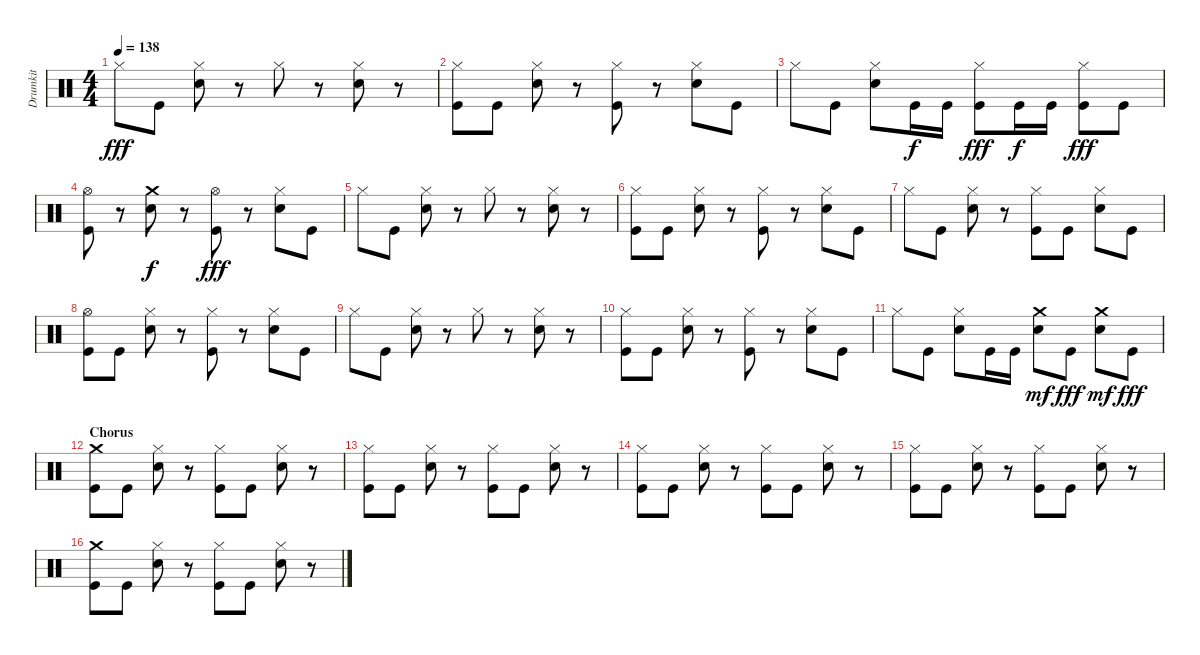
\track ("Drumkit" "Drumkit") {instrument percussion}
\staff {score}
\articulation defaults
\ts (4 4)
\tempo 138
\clef neutral
\ks c "Hi-Hat (closed)".8{dy fff} "Kick (hit)".8
("Hi-Hat (closed)" "Snare (hit) 2").8 r.8 "Hi-Hat (closed)".8 r.8 ("Hi-Hat (closed)" "Snare (hit) 2").8 r.8 |
("Hi-Hat (closed)" "Kick (hit)").8 "Kick (hit)".8 ("Hi-Hat (closed)" "Snare (hit) 2").8 r.8 ("Hi-Hat (closed)" "Kick (hit)").8 r.8 ("Hi-Hat (closed)" "Snare (hit) 2").8 "Kick (hit)".8 |
"Hi-Hat (closed)".8 "Kick (hit)".8 ("Hi-Hat (closed)" "Snare (hit) 2").8 "Kick (hit)".16{dy f} "Kick (hit)".16 ("Hi-Hat (closed)" "Kick (hit)").8{dy fff} "Kick (hit)".16{dy f} "Kick (hit)".16 ("Hi-Hat (closed)" "Kick (hit)").8{dy fff} "Kick (hit)".8 |
("Hi-Hat (open)" "Kick (hit)").8 r.8 ("Crash medium (hit)" "Snare (hit) 2").8{dy f} r.8 ("Hi-Hat (open)" "Kick (hit)").8{dy fff} r.8 ("Hi-Hat (closed)" "Snare (hit) 2").8 "Kick (hit)".8 |
"Hi-Hat (closed)".8 "Kick (hit)".8 ("Hi-Hat (closed)" "Snare (hit) 2").8 r.8 "Hi-Hat (closed)".8 r.8 ("Hi-Hat (closed)" "Snare (hit) 2").8 r.8 |
("Hi-Hat (closed)" "Kick (hit)").8 "Kick (hit)".8 ("Hi-Hat (closed)" "Snare (hit) 2").8 r.8 ("Hi-Hat (closed)" "Kick (hit)").8 r.8 ("Hi-Hat (closed)" "Snare (hit) 2").8 "Kick (hit)".8 |
"Hi-Hat (closed)".8 "Kick (hit)".8 ("Hi-Hat (closed)" "Snare (hit) 2").8 r.8 ("Hi-Hat (closed)" "Kick (hit)").8 "Kick (hit)".8 ("Hi-Hat (closed)" "Snare (hit) 2").8 "Kick (hit)".8 |
("Hi-Hat (open)" "Kick (hit)").8 "Kick (hit)".8 ("Hi-Hat (closed)" "Snare (hit) 2").8 r.8 ("Hi-Hat (closed)" "Kick (hit)").8 r.8 ("Hi-Hat (closed)" "Snare (hit) 2").8 "Kick (hit)".8 |
"Hi-Hat (closed)".8 "Kick (hit)".8 ("Hi-Hat (closed)" "Snare (hit) 2").8 r.8 "Hi-Hat (closed)".8 r.8 ("Hi-Hat (closed)" "Snare (hit) 2").8 r.8 |
("Hi-Hat (closed)" "Kick (hit)").8 "Kick (hit)".8 ("Hi-Hat (closed)" "Snare (hit) 2").8 r.8 ("Hi-Hat (closed)" "Kick (hit)").8 r.8 ("Hi-Hat (closed)" "Snare (hit) 2").8 "Kick (hit)".8 |
"Hi-Hat (closed)".8 "Kick (hit)".8 ("Hi-Hat (closed)" "Snare (hit) 2").8 "Kick (hit)".16 "Kick (hit)".16 ("Crash medium (hit)" "Snare (hit) 2").8{dy mf} "Kick (hit)".8{dy fff} ("Crash medium (hit)" "Snare (hit) 2").8{dy mf} "Kick (hit)".8{dy fff} |
\section ("" "Chorus")
("Crash medium (hit)" "Kick (hit)").8 "Kick (hit)".8 ("Hi-Hat (closed)" "Snare (hit) 2").8 r.8 ("Hi-Hat (closed)" "Kick (hit)").8 "Kick (hit)".8 ("Hi-Hat (closed)" "Snare (hit) 2").8 r.8 |
("Hi-Hat (closed)" "Kick (hit)").8 "Kick (hit)".8 ("Hi-Hat (closed)" "Snare (hit) 2").8 r.8 ("Hi-Hat (closed)" "Kick (hit)").8 "Kick (hit)".8 ("Hi-Hat (closed)" "Snare (hit) 2").8 r.8 |
("Hi-Hat (closed)" "Kick (hit)").8 "Kick (hit)".8 ("Hi-Hat (closed)" "Snare (hit) 2").8 r.8 ("Hi-Hat (closed)" "Kick (hit)").8 "Kick (hit)".8 ("Hi-Hat (closed)" "Snare (hit) 2").8 r.8 |
("Hi-Hat (closed)" "Kick (hit)").8 "Kick (hit)".8 ("Hi-Hat (closed)" "Snare (hit) 2").8 r.8 ("Hi-Hat (closed)" "Kick (hit)").8 "Kick (hit)".8 ("Hi-Hat (closed)" "Snare (hit) 2").8 r.8 |
("Crash medium (hit)" "Kick (hit)").8 "Kick (hit)".8 ("Hi-Hat (closed)" "Snare (hit) 2").8 r.8 ("Hi-Hat (closed)" "Kick (hit)").8 "Kick (hit)".8 ("Hi-Hat (closed)" "Snare (hit) 2").8 r.8
